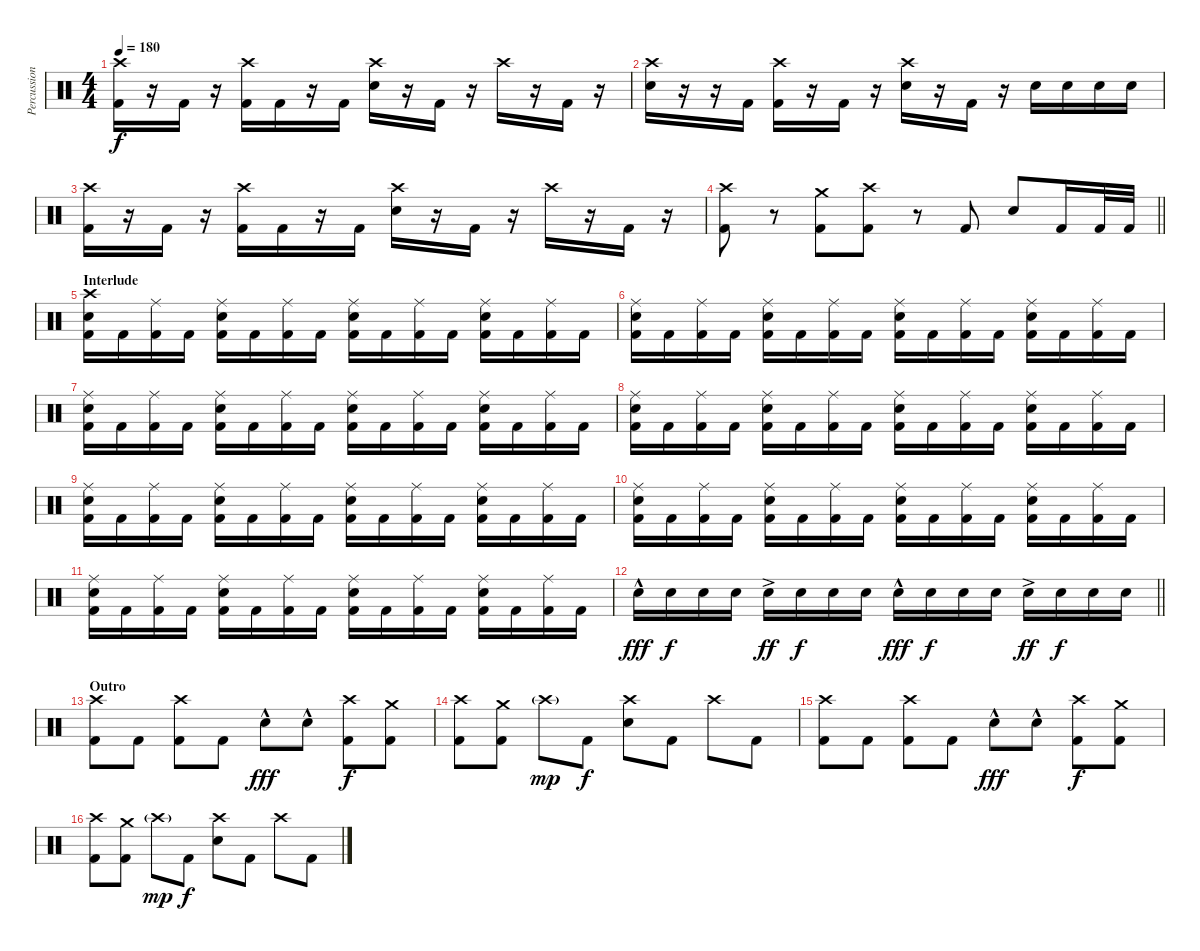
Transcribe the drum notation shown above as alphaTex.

\track ("Percussion" "Percussion") {instrument percussion}
\staff {score}
\articulation defaults
\ts (4 4)
\tempo 180
\clef neutral
\ks c
("Crash high (hit)" "Kick (hit) 2").16{dy f} r.16 "Kick (hit) 2".16 r.16 ("Crash high (hit)" "Kick (hit) 2").16 "Kick (hit) 2".16 r.16 "Kick (hit) 2".16 ("Crash high (hit)" "Electric Snare (hit)").16 r.16 "Kick (hit) 2".16 r.16 "Crash high (hit)".16 r.16 "Kick (hit) 2".16 r.16 |
("Crash high (hit)" "Electric Snare (hit)").16 r.16 r.16 "Kick (hit) 2".16 ("Crash high (hit)" "Kick (hit) 2").16 r.16 "Kick (hit) 2".16 r.16 ("Crash high (hit)" "Electric Snare (hit)").16 r.16 "Kick (hit) 2".16 r.16 "Electric Snare (hit)".16 "Electric Snare (hit)".16 "Electric Snare (hit)".16 "Electric Snare (hit)".16 |
("Crash high (hit)" "Kick (hit) 2").16 r.16 "Kick (hit) 2".16 r.16 ("Crash high (hit)" "Kick (hit) 2").16 "Kick (hit) 2".16 r.16 "Kick (hit) 2".16 ("Crash high (hit)" "Electric Snare (hit)").16 r.16 "Kick (hit) 2".16 r.16 "Crash high (hit)".16 r.16 "Kick (hit) 2".16 r.16 |
\barLineRight lightlight
("Crash high (hit)" "Kick (hit) 2").8 r.8 ("Crash medium (hit)" "Kick (hit) 2").8 ("Crash high (hit)" "Kick (hit) 2").8 r.8 "Kick (hit) 2".8 "Electric Snare (hit)".8 "Kick (hit) 2".16 "Kick (hit) 2".32 "Kick (hit) 2".32 |
\section ("" "Interlude")
("Crash high (hit)" "Electric Snare (hit)" "Kick (hit) 2").16 "Kick (hit) 2".16 ("Ride (middle)" "Kick (hit) 2").16 "Kick (hit) 2".16 ("Ride (middle)" "Electric Snare (hit)" "Kick (hit) 2").16 "Kick (hit) 2".16 ("Ride (middle)" "Kick (hit) 2").16 "Kick (hit) 2".16 ("Ride (middle)" "Electric Snare (hit)" "Kick (hit) 2").16 "Kick (hit) 2".16 ("Ride (middle)" "Kick (hit) 2").16 "Kick (hit) 2".16 ("Ride (middle)" "Electric Snare (hit)" "Kick (hit) 2").16 "Kick (hit) 2".16 ("Ride (middle)" "Kick (hit) 2").16 "Kick (hit) 2".16 |
("Ride (middle)" "Electric Snare (hit)" "Kick (hit) 2").16 "Kick (hit) 2".16 ("Ride (middle)" "Kick (hit) 2").16 "Kick (hit) 2".16 ("Ride (middle)" "Electric Snare (hit)" "Kick (hit) 2").16 "Kick (hit) 2".16 ("Ride (middle)" "Kick (hit) 2").16 "Kick (hit) 2".16 ("Ride (middle)" "Electric Snare (hit)" "Kick (hit) 2").16 "Kick (hit) 2".16 ("Ride (middle)" "Kick (hit) 2").16 "Kick (hit) 2".16 ("Ride (middle)" "Electric Snare (hit)" "Kick (hit) 2").16 "Kick (hit) 2".16 ("Ride (middle)" "Kick (hit) 2").16 "Kick (hit) 2".16 |
("Ride (middle)" "Electric Snare (hit)" "Kick (hit) 2").16 "Kick (hit) 2".16 ("Ride (middle)" "Kick (hit) 2").16 "Kick (hit) 2".16 ("Ride (middle)" "Electric Snare (hit)" "Kick (hit) 2").16 "Kick (hit) 2".16 ("Ride (middle)" "Kick (hit) 2").16 "Kick (hit) 2".16 ("Ride (middle)" "Electric Snare (hit)" "Kick (hit) 2").16 "Kick (hit) 2".16 ("Ride (middle)" "Kick (hit) 2").16 "Kick (hit) 2".16 ("Ride (middle)" "Electric Snare (hit)" "Kick (hit) 2").16 "Kick (hit) 2".16 ("Ride (middle)" "Kick (hit) 2").16 "Kick (hit) 2".16 |
("Ride (middle)" "Electric Snare (hit)" "Kick (hit) 2").16 "Kick (hit) 2".16 ("Ride (middle)" "Kick (hit) 2").16 "Kick (hit) 2".16 ("Ride (middle)" "Electric Snare (hit)" "Kick (hit) 2").16 "Kick (hit) 2".16 ("Ride (middle)" "Kick (hit) 2").16 "Kick (hit) 2".16 ("Ride (middle)" "Electric Snare (hit)" "Kick (hit) 2").16 "Kick (hit) 2".16 ("Ride (middle)" "Kick (hit) 2").16 "Kick (hit) 2".16 ("Ride (middle)" "Electric Snare (hit)" "Kick (hit) 2").16 "Kick (hit) 2".16 ("Ride (middle)" "Kick (hit) 2").16 "Kick (hit) 2".16 |
("Ride (middle)" "Electric Snare (hit)" "Kick (hit) 2").16 "Kick (hit) 2".16 ("Ride (middle)" "Kick (hit) 2").16 "Kick (hit) 2".16 ("Ride (middle)" "Electric Snare (hit)" "Kick (hit) 2").16 "Kick (hit) 2".16 ("Ride (middle)" "Kick (hit) 2").16 "Kick (hit) 2".16 ("Ride (middle)" "Electric Snare (hit)" "Kick (hit) 2").16 "Kick (hit) 2".16 ("Ride (middle)" "Kick (hit) 2").16 "Kick (hit) 2".16 ("Ride (middle)" "Electric Snare (hit)" "Kick (hit) 2").16 "Kick (hit) 2".16 ("Ride (middle)" "Kick (hit) 2").16 "Kick (hit) 2".16 |
("Ride (middle)" "Electric Snare (hit)" "Kick (hit) 2").16 "Kick (hit) 2".16 ("Ride (middle)" "Kick (hit) 2").16 "Kick (hit) 2".16 ("Ride (middle)" "Electric Snare (hit)" "Kick (hit) 2").16 "Kick (hit) 2".16 ("Ride (middle)" "Kick (hit) 2").16 "Kick (hit) 2".16 ("Ride (middle)" "Electric Snare (hit)" "Kick (hit) 2").16 "Kick (hit) 2".16 ("Ride (middle)" "Kick (hit) 2").16 "Kick (hit) 2".16 ("Ride (middle)" "Electric Snare (hit)" "Kick (hit) 2").16 "Kick (hit) 2".16 ("Ride (middle)" "Kick (hit) 2").16 "Kick (hit) 2".16 |
("Ride (middle)" "Electric Snare (hit)" "Kick (hit) 2").16 "Kick (hit) 2".16 ("Ride (middle)" "Kick (hit) 2").16 "Kick (hit) 2".16 ("Ride (middle)" "Electric Snare (hit)" "Kick (hit) 2").16 "Kick (hit) 2".16 ("Ride (middle)" "Kick (hit) 2").16 "Kick (hit) 2".16 ("Ride (middle)" "Electric Snare (hit)" "Kick (hit) 2").16 "Kick (hit) 2".16 ("Ride (middle)" "Kick (hit) 2").16 "Kick (hit) 2".16 ("Ride (middle)" "Electric Snare (hit)" "Kick (hit) 2").16 "Kick (hit) 2".16 ("Ride (middle)" "Kick (hit) 2").16 "Kick (hit) 2".16 |
\barLineRight lightlight "Electric Snare (hit)"{hac}.16{dy fff} "Electric Snare (hit)".16{dy f} "Electric Snare (hit)".16 "Electric Snare (hit)".16 "Electric Snare (hit)"{ac}.16{dy ff} "Electric Snare (hit)".16{dy f} "Electric Snare (hit)".16 "Electric Snare (hit)".16 "Electric Snare (hit)"{hac}.16{dy fff} "Electric Snare (hit)".16{dy f} "Electric Snare (hit)".16 "Electric Snare (hit)".16 "Electric Snare (hit)"{ac}.16{dy ff} "Electric Snare (hit)".16{dy f} "Electric Snare (hit)".16 "Electric Snare (hit)".16
|
\section ("" "Outro")
("Crash high (hit)" "Kick (hit) 2").8 "Kick (hit) 2".8 ("Crash high (hit)" "Kick (hit) 2").8 "Kick (hit) 2".8 "Electric Snare (hit)"{hac}.8{dy fff} "Electric Snare (hit)"{hac}.8 ("Crash high (hit)" "Kick (hit) 2").8{dy f} ("Crash medium (hit)" "Kick (hit) 2").8 |
("Crash high (hit)" "Kick (hit) 2").8 ("Crash medium (hit)" "Kick (hit) 2").8 "Crash high (hit)"{g}.8{dy mp} "Kick (hit) 2".8{dy f} ("Crash high (hit)" "Electric Snare (hit)").8 "Kick (hit) 2".8 "Crash high (hit)".8 "Kick (hit) 2".8 |
("Crash high (hit)" "Kick (hit) 2").8 "Kick (hit) 2".8 ("Crash high (hit)" "Kick (hit) 2").8 "Kick (hit) 2".8 "Electric Snare (hit)"{hac}.8{dy fff} "Electric Snare (hit)"{hac}.8 ("Crash high (hit)" "Kick (hit) 2").8{dy f} ("Crash medium (hit)" "Kick (hit) 2").8 |
("Crash high (hit)" "Kick (hit) 2").8 ("Crash medium (hit)" "Kick (hit) 2").8 "Crash high (hit)"{g}.8{dy mp} "Kick (hit) 2".8{dy f} ("Crash high (hit)" "Electric Snare (hit)").8 "Kick (hit) 2".8 "Crash high (hit)".8 "Kick (hit) 2".8
